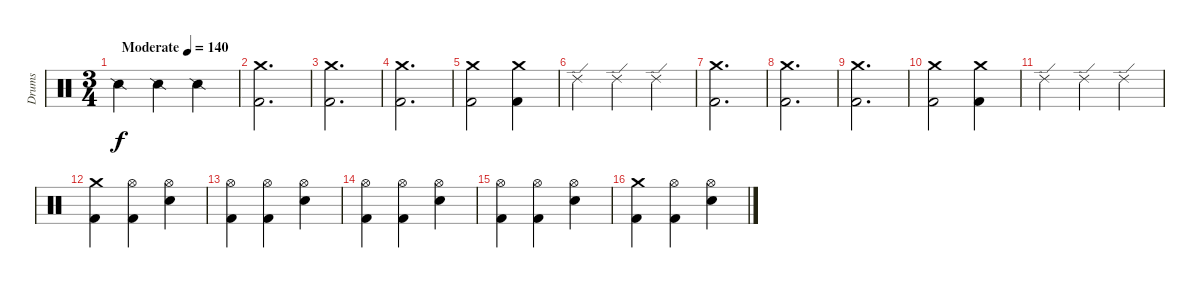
\track ("Drums" "Drums") {instrument percussion}
\staff {score}
\articulation defaults
\ts (3 4)
\tempo (140 "Moderate")
\clef neutral
\ks c "Snare (side stick) 2".4{dy f} "Snare (side stick) 2".4 "Snare (side stick) 2".4
|
("Kick (hit) 2" "Crash medium (hit)").2{d} |
("Kick (hit) 2" "Crash medium (hit)").2{d} |
("Kick (hit) 2" "Crash medium (hit)").2{d} |
("Kick (hit) 2" "Crash medium (hit)").2 ("Kick (hit) 2" "Crash medium (hit)").4 |
"Ride (edge) 2".4 "Ride (edge) 2".4 "Ride (edge) 2".4 |
("Kick (hit) 2" "Crash medium (hit)").2{d} |
("Kick (hit) 2" "Crash medium (hit)").2{d} |
("Kick (hit) 2" "Crash medium (hit)").2{d} |
("Kick (hit) 2" "Crash medium (hit)").2 ("Kick (hit) 2" "Crash medium (hit)").4 |
"Ride (edge) 2".4 "Ride (edge) 2".4 "Ride (edge) 2".4 |
("Kick (hit) 2" "Crash medium (hit)").4 ("Kick (hit) 2" "Hi-Hat (open)").4 ("Hi-Hat (open)" "Electric Snare (hit)").4 |
("Kick (hit) 2" "Hi-Hat (open)").4 ("Kick (hit) 2" "Hi-Hat (open)").4 ("Hi-Hat (open)" "Electric Snare (hit)").4 |
("Kick (hit) 2" "Hi-Hat (open)").4 ("Kick (hit) 2" "Hi-Hat (open)").4 ("Hi-Hat (open)" "Electric Snare (hit)").4 |
("Kick (hit) 2" "Hi-Hat (open)").4 ("Kick (hit) 2" "Hi-Hat (open)").4 ("Hi-Hat (open)" "Electric Snare (hit)").4 |
("Kick (hit) 2" "Crash medium (hit)").4 ("Kick (hit) 2" "Hi-Hat (open)").4 ("Hi-Hat (open)" "Electric Snare (hit)").4
